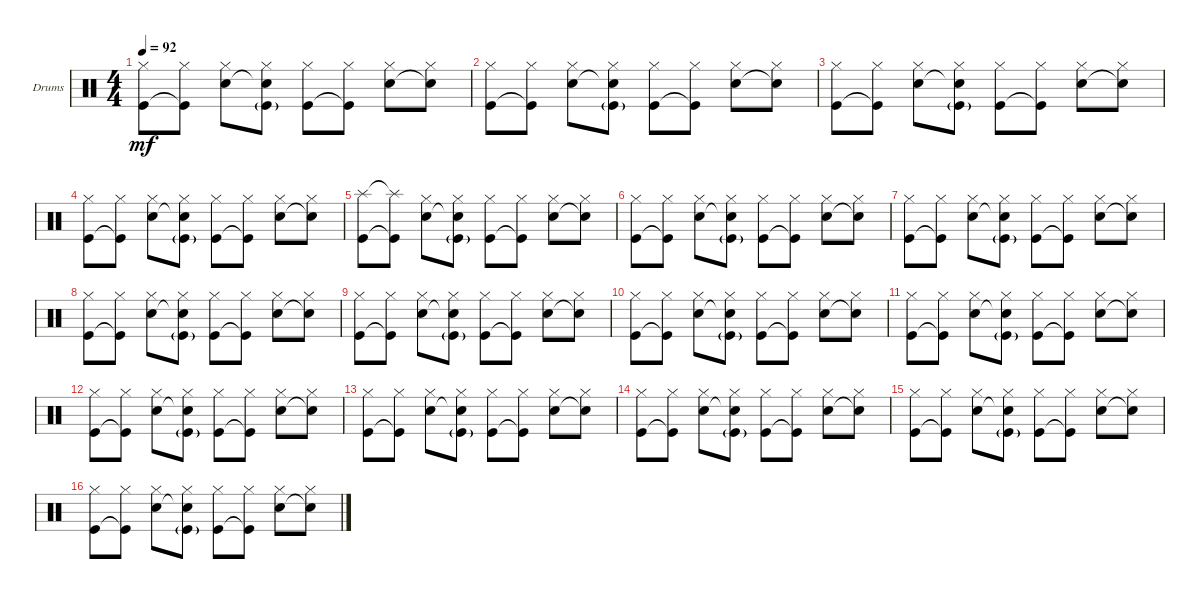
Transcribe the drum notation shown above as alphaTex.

\bracketExtendMode groupsimilarinstruments
\firstSystemTrackNameOrientation horizontal
\otherSystemsTrackNameOrientation horizontal
\track ("Drumkit" "Drums") {instrument percussion}
\staff {score}
\articulation defaults
\ts (4 4)
\tempo 92
\clef neutral
\ks c
("Hi-Hat (closed)" "Kick (hit)").8{dy mf} ("Hi-Hat (closed)" "Kick (hit)"{t}).8 ("Hi-Hat (closed)" "Snare (hit) 2").8 ("Hi-Hat (closed)" "Snare (hit) 2"{t} "Kick (hit)"{g}).8 ("Hi-Hat (closed)" "Kick (hit)").8 ("Hi-Hat (closed)" "Kick (hit)"{t}).8 ("Hi-Hat (closed)" "Snare (hit) 2").8 ("Hi-Hat (closed)" "Snare (hit) 2"{t}).8 |
("Hi-Hat (closed)" "Kick (hit)").8 ("Hi-Hat (closed)" "Kick (hit)"{t}).8 ("Hi-Hat (closed)" "Snare (hit) 2").8 ("Hi-Hat (closed)" "Snare (hit) 2"{t} "Kick (hit)"{g}).8 ("Hi-Hat (closed)" "Kick (hit)").8 ("Hi-Hat (closed)" "Kick (hit)"{t}).8 ("Hi-Hat (closed)" "Snare (hit) 2").8 ("Hi-Hat (closed)" "Snare (hit) 2"{t}).8 |
("Hi-Hat (closed)" "Kick (hit)").8 ("Hi-Hat (closed)" "Kick (hit)"{t}).8 ("Hi-Hat (closed)" "Snare (hit) 2").8 ("Hi-Hat (closed)" "Snare (hit) 2"{t} "Kick (hit)"{g}).8 ("Hi-Hat (closed)" "Kick (hit)").8 ("Hi-Hat (closed)" "Kick (hit)"{t}).8 ("Hi-Hat (closed)" "Snare (hit) 2").8 ("Hi-Hat (closed)" "Snare (hit) 2"{t}).8 |
("Hi-Hat (closed)" "Kick (hit)").8 ("Hi-Hat (closed)" "Kick (hit)"{t}).8 ("Hi-Hat (closed)" "Snare (hit) 2").8 ("Hi-Hat (closed)" "Snare (hit) 2"{t} "Kick (hit)"{g}).8 ("Hi-Hat (closed)" "Kick (hit)").8 ("Hi-Hat (closed)" "Kick (hit)"{t}).8 ("Hi-Hat (closed)" "Snare (hit) 2").8 ("Hi-Hat (closed)" "Snare (hit) 2"{t}).8 |
("Kick (hit)" "Splash (hit)").8 ("Kick (hit)"{t} "Splash (hit)"{t}).8 ("Hi-Hat (closed)" "Snare (hit) 2").8 ("Hi-Hat (closed)" "Snare (hit) 2"{t} "Kick (hit)"{g}).8 ("Hi-Hat (closed)" "Kick (hit)").8 ("Hi-Hat (closed)" "Kick (hit)"{t}).8 ("Hi-Hat (closed)" "Snare (hit) 2").8 ("Hi-Hat (closed)" "Snare (hit) 2"{t}).8 |
("Hi-Hat (closed)" "Kick (hit)").8 ("Hi-Hat (closed)" "Kick (hit)"{t}).8 ("Hi-Hat (closed)" "Snare (hit) 2").8 ("Hi-Hat (closed)" "Snare (hit) 2"{t} "Kick (hit)"{g}).8 ("Hi-Hat (closed)" "Kick (hit)").8 ("Hi-Hat (closed)" "Kick (hit)"{t}).8 ("Hi-Hat (closed)" "Snare (hit) 2").8 ("Hi-Hat (closed)" "Snare (hit) 2"{t}).8 |
("Hi-Hat (closed)" "Kick (hit)").8 ("Hi-Hat (closed)" "Kick (hit)"{t}).8 ("Hi-Hat (closed)" "Snare (hit) 2").8 ("Hi-Hat (closed)" "Snare (hit) 2"{t} "Kick (hit)"{g}).8 ("Hi-Hat (closed)" "Kick (hit)").8 ("Hi-Hat (closed)" "Kick (hit)"{t}).8 ("Hi-Hat (closed)" "Snare (hit) 2").8 ("Hi-Hat (closed)" "Snare (hit) 2"{t}).8 |
("Hi-Hat (closed)" "Kick (hit)").8 ("Hi-Hat (closed)" "Kick (hit)"{t}).8 ("Hi-Hat (closed)" "Snare (hit) 2").8 ("Hi-Hat (closed)" "Snare (hit) 2"{t} "Kick (hit)"{g}).8 ("Hi-Hat (closed)" "Kick (hit)").8 ("Hi-Hat (closed)" "Kick (hit)"{t}).8 ("Hi-Hat (closed)" "Snare (hit) 2").8 ("Hi-Hat (closed)" "Snare (hit) 2"{t}).8 |
("Hi-Hat (closed)" "Kick (hit)").8 ("Hi-Hat (closed)" "Kick (hit)"{t}).8 ("Hi-Hat (closed)" "Snare (hit) 2").8 ("Hi-Hat (closed)" "Snare (hit) 2"{t} "Kick (hit)"{g}).8 ("Hi-Hat (closed)" "Kick (hit)").8 ("Hi-Hat (closed)" "Kick (hit)"{t}).8 ("Hi-Hat (closed)" "Snare (hit) 2").8 ("Hi-Hat (closed)" "Snare (hit) 2"{t}).8 |
("Hi-Hat (closed)" "Kick (hit)").8 ("Hi-Hat (closed)" "Kick (hit)"{t}).8 ("Hi-Hat (closed)" "Snare (hit) 2").8 ("Hi-Hat (closed)" "Snare (hit) 2"{t} "Kick (hit)"{g}).8 ("Hi-Hat (closed)" "Kick (hit)").8 ("Hi-Hat (closed)" "Kick (hit)"{t}).8 ("Hi-Hat (closed)" "Snare (hit) 2").8 ("Hi-Hat (closed)" "Snare (hit) 2"{t}).8 |
("Hi-Hat (closed)" "Kick (hit)").8 ("Hi-Hat (closed)" "Kick (hit)"{t}).8 ("Hi-Hat (closed)" "Snare (hit) 2").8 ("Hi-Hat (closed)" "Snare (hit) 2"{t} "Kick (hit)"{g}).8 ("Hi-Hat (closed)" "Kick (hit)").8 ("Hi-Hat (closed)" "Kick (hit)"{t}).8 ("Hi-Hat (closed)" "Snare (hit) 2").8 ("Hi-Hat (closed)" "Snare (hit) 2"{t}).8 |
("Hi-Hat (closed)" "Kick (hit)").8 ("Hi-Hat (closed)" "Kick (hit)"{t}).8 ("Hi-Hat (closed)" "Snare (hit) 2").8 ("Hi-Hat (closed)" "Snare (hit) 2"{t} "Kick (hit)"{g}).8 ("Hi-Hat (closed)" "Kick (hit)").8 ("Hi-Hat (closed)" "Kick (hit)"{t}).8 ("Hi-Hat (closed)" "Snare (hit) 2").8 ("Hi-Hat (closed)" "Snare (hit) 2"{t}).8 |
("Hi-Hat (closed)" "Kick (hit)").8 ("Hi-Hat (closed)" "Kick (hit)"{t}).8 ("Hi-Hat (closed)" "Snare (hit) 2").8 ("Hi-Hat (closed)" "Snare (hit) 2"{t} "Kick (hit)"{g}).8 ("Hi-Hat (closed)" "Kick (hit)").8 ("Hi-Hat (closed)" "Kick (hit)"{t}).8 ("Hi-Hat (closed)" "Snare (hit) 2").8 ("Hi-Hat (closed)" "Snare (hit) 2"{t}).8 |
("Hi-Hat (closed)" "Kick (hit)").8 ("Hi-Hat (closed)" "Kick (hit)"{t}).8 ("Hi-Hat (closed)" "Snare (hit) 2").8 ("Hi-Hat (closed)" "Snare (hit) 2"{t} "Kick (hit)"{g}).8 ("Hi-Hat (closed)" "Kick (hit)").8 ("Hi-Hat (closed)" "Kick (hit)"{t}).8 ("Hi-Hat (closed)" "Snare (hit) 2").8 ("Hi-Hat (closed)" "Snare (hit) 2"{t}).8 |
("Hi-Hat (closed)" "Kick (hit)").8 ("Hi-Hat (closed)" "Kick (hit)"{t}).8 ("Hi-Hat (closed)" "Snare (hit) 2").8 ("Hi-Hat (closed)" "Snare (hit) 2"{t} "Kick (hit)"{g}).8 ("Hi-Hat (closed)" "Kick (hit)").8 ("Hi-Hat (closed)" "Kick (hit)"{t}).8 ("Hi-Hat (closed)" "Snare (hit) 2").8 ("Hi-Hat (closed)" "Snare (hit) 2"{t}).8 |
("Hi-Hat (closed)" "Kick (hit)").8 ("Hi-Hat (closed)" "Kick (hit)"{t}).8 ("Hi-Hat (closed)" "Snare (hit) 2").8 ("Hi-Hat (closed)" "Snare (hit) 2"{t} "Kick (hit)"{g}).8 ("Hi-Hat (closed)" "Kick (hit)").8 ("Hi-Hat (closed)" "Kick (hit)"{t}).8 ("Hi-Hat (closed)" "Snare (hit) 2").8 ("Hi-Hat (closed)" "Snare (hit) 2"{t}).8
